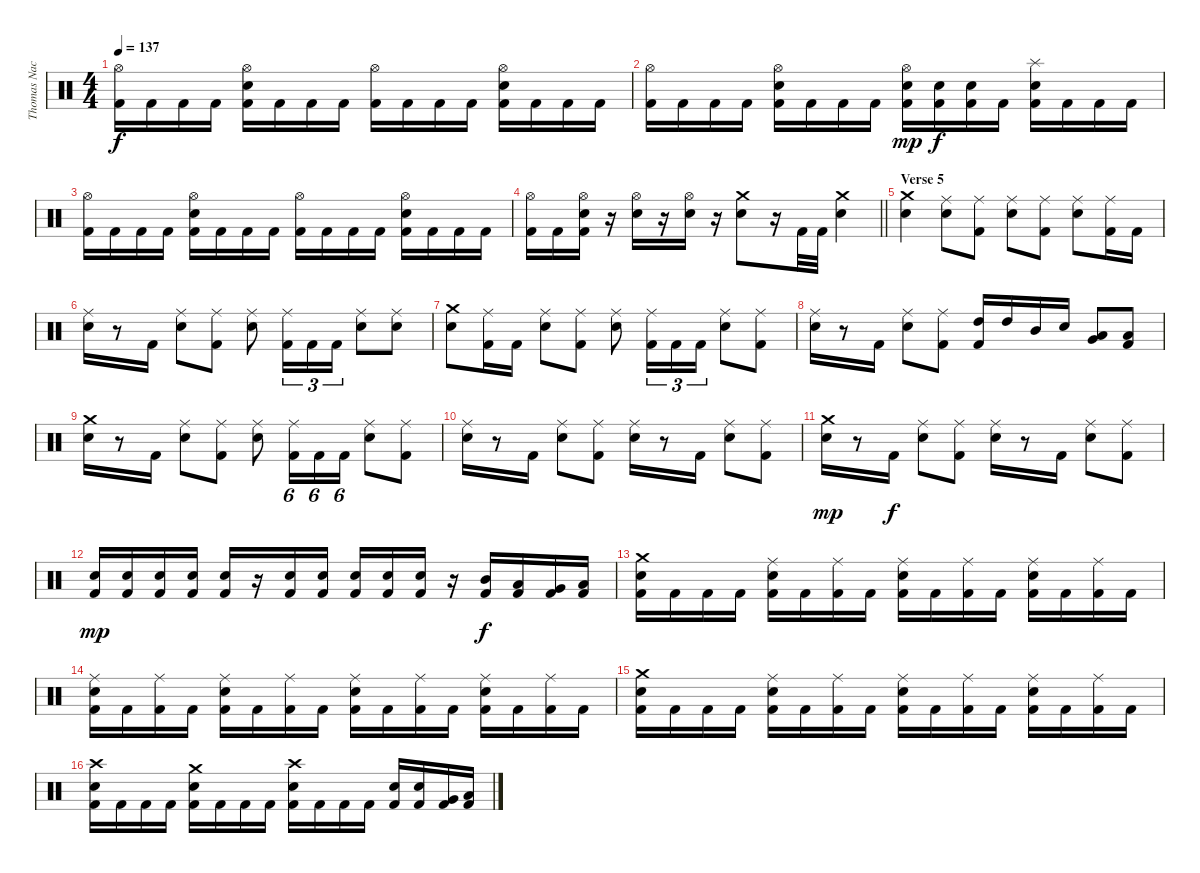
\track ("Thomas Nack" "Thomas Nac") {instrument percussion}
\staff {score}
\articulation defaults
\ts (4 4)
\tempo 137
\clef neutral
\ks c
("Hi-Hat (open)" "Kick (hit) 2").16{dy f} "Kick (hit) 2".16 "Kick (hit) 2".16 "Kick (hit) 2".16 ("Hi-Hat (open)" "Electric Snare (hit)" "Kick (hit) 2").16 "Kick (hit) 2".16 "Kick (hit) 2".16 "Kick (hit) 2".16 ("Hi-Hat (open)" "Kick (hit) 2").16 "Kick (hit) 2".16 "Kick (hit) 2".16 "Kick (hit) 2".16 ("Hi-Hat (open)" "Electric Snare (hit)" "Kick (hit) 2").16 "Kick (hit) 2".16 "Kick (hit) 2".16 "Kick (hit) 2".16 |
("Hi-Hat (open)" "Kick (hit) 2").16 "Kick (hit) 2".16 "Kick (hit) 2".16 "Kick (hit) 2".16 ("Hi-Hat (open)" "Electric Snare (hit)" "Kick (hit) 2").16 "Kick (hit) 2".16 "Kick (hit) 2".16 "Kick (hit) 2".16 ("Hi-Hat (open)" "Electric Snare (hit)" "Kick (hit) 2").16{dy mp} ("Electric Snare (hit)" "Kick (hit) 2").16{dy f} ("Electric Snare (hit)" "Kick (hit) 2").16 "Kick (hit) 2".16 ("Splash (hit)" "Electric Snare (hit)" "Kick (hit) 2").16 "Kick (hit) 2".16 "Kick (hit) 2".16 "Kick (hit) 2".16 |
("Hi-Hat (open)" "Kick (hit) 2").16 "Kick (hit) 2".16 "Kick (hit) 2".16 "Kick (hit) 2".16 ("Hi-Hat (open)" "Electric Snare (hit)" "Kick (hit) 2").16 "Kick (hit) 2".16 "Kick (hit) 2".16 "Kick (hit) 2".16 ("Hi-Hat (open)" "Kick (hit) 2").16 "Kick (hit) 2".16 "Kick (hit) 2".16 "Kick (hit) 2".16 ("Hi-Hat (open)" "Electric Snare (hit)" "Kick (hit) 2").16 "Kick (hit) 2".16 "Kick (hit) 2".16 "Kick (hit) 2".16 |
\barLineRight lightlight
("Hi-Hat (open)" "Kick (hit) 2").16 "Kick (hit) 2".16 ("Hi-Hat (open)" "Electric Snare (hit)" "Kick (hit) 2").16 r.16 ("Hi-Hat (open)" "Electric Snare (hit)").16 r.16 ("Hi-Hat (open)" "Electric Snare (hit)").16 r.16 ("Crash medium (hit)" "Electric Snare (hit)").8 r.16 "Kick (hit) 2".32 "Kick (hit) 2".32 ("Crash medium (hit)" "Electric Snare (hit)").4 |
\section ("" "Verse 5")
("Crash medium (hit)" "Electric Snare (hit)").4 ("Ride (middle)" "Electric Snare (hit)").8 ("Ride (middle)" "Kick (hit) 2").8 ("Ride (middle)" "Electric Snare (hit)").8 ("Ride (middle)" "Kick (hit) 2").8 ("Ride (middle)" "Electric Snare (hit)").8 ("Ride (middle)" "Kick (hit) 2").16 "Kick (hit) 2".16 |
("Ride (middle)" "Electric Snare (hit)").16 r.8 "Kick (hit) 2".16 ("Ride (middle)" "Electric Snare (hit)").8 ("Ride (middle)" "Kick (hit) 2").8 ("Ride (middle)" "Electric Snare (hit)").8 ("Ride (middle)" "Kick (hit) 2").16{tu (3 2)} "Kick (hit) 2".16{tu (3 2)} "Kick (hit) 2".16{tu (3 2)} ("Ride (middle)" "Electric Snare (hit)").8 ("Ride (middle)" "Electric Snare (hit)").8 |
("Crash medium (hit)" "Electric Snare (hit)").8 ("Ride (middle)" "Kick (hit) 2").16 "Kick (hit) 2".16 ("Ride (middle)" "Electric Snare (hit)").8 ("Ride (middle)" "Kick (hit) 2").8 ("Ride (middle)" "Electric Snare (hit)").8 ("Ride (middle)" "Kick (hit) 2").16{tu (3 2)} "Kick (hit) 2".16{tu (3 2)} "Kick (hit) 2".16{tu (3 2)} ("Ride (middle)" "Electric Snare (hit)").8 ("Ride (middle)" "Kick (hit) 2").8 |
("Ride (middle)" "Electric Snare (hit)").16 r.8 "Kick (hit) 2".16 ("Ride (middle)" "Electric Snare (hit)").8 ("Ride (middle)" "Kick (hit) 2").8 ("High Tom (hit)" "Kick (hit) 2").16 "High Tom (hit)".16 "Mid Tom (hit)".16 "Electric Snare (hit)".16 ("Very Low Tom (hit)" "Low Floor Tom (hit)").8 ("Low Floor Tom (hit)" "Kick (hit) 2").8 |
("Crash medium (hit)" "Electric Snare (hit)").16 r.8 "Kick (hit) 2".16 ("Ride (middle)" "Electric Snare (hit)").8 ("Ride (middle)" "Kick (hit) 2").8 ("Ride (middle)" "Electric Snare (hit)").8 ("Ride (middle)" "Kick (hit) 2").16{tu (6 4)} "Kick (hit) 2".16{tu (6 4)} "Kick (hit) 2".16{tu (6 4)} ("Ride (middle)" "Electric Snare (hit)").8 ("Ride (middle)" "Kick (hit) 2").8 |
("Ride (middle)" "Electric Snare (hit)").16 r.8 "Kick (hit) 2".16 ("Ride (middle)" "Electric Snare (hit)").8 ("Ride (middle)" "Kick (hit) 2").8 ("Ride (middle)" "Electric Snare (hit)").16 r.8 "Kick (hit) 2".16 ("Ride (middle)" "Electric Snare (hit)").8 ("Ride (middle)" "Kick (hit) 2").8 |
("Crash medium (hit)" "Electric Snare (hit)").16{dy mp} r.8 "Kick (hit) 2".16{dy f} ("Ride (middle)" "Electric Snare (hit)").8 ("Ride (middle)" "Kick (hit) 2").8 ("Ride (middle)" "Electric Snare (hit)").16 r.8 "Kick (hit) 2".16 ("Ride (middle)" "Electric Snare (hit)").8 ("Ride (middle)" "Kick (hit) 2").8 |
("Electric Snare (hit)" "Kick (hit) 2").16{dy mp} ("Electric Snare (hit)" "Kick (hit) 2").16 ("Electric Snare (hit)" "Kick (hit) 2").16 ("Electric Snare (hit)" "Kick (hit) 2").16 ("Electric Snare (hit)" "Kick (hit) 2").16 r.16 ("Electric Snare (hit)" "Kick (hit) 2").16 ("Electric Snare (hit)" "Kick (hit) 2").16 ("Electric Snare (hit)" "Kick (hit) 2").16 ("Electric Snare (hit)" "Kick (hit) 2").16 ("Electric Snare (hit)" "Kick (hit) 2").16 r.16 ("Mid Tom (hit)" "Kick (hit) 2").16{dy f} ("Low Tom (hit)" "Kick (hit) 2").16 ("Very Low Tom (hit)" "Kick (hit) 2").16 ("Low Floor Tom (hit)" "Kick (hit) 2").16 |
("Crash medium (hit)" "Electric Snare (hit)" "Kick (hit) 2").16 "Kick (hit) 2".16 "Kick (hit) 2".16 "Kick (hit) 2".16 ("Ride (middle)" "Electric Snare (hit)" "Kick (hit) 2").16 "Kick (hit) 2".16 ("Ride (middle)" "Kick (hit) 2").16 "Kick (hit) 2".16 ("Ride (middle)" "Electric Snare (hit)" "Kick (hit) 2").16 "Kick (hit) 2".16 ("Ride (middle)" "Kick (hit) 2").16 "Kick (hit) 2".16 ("Ride (middle)" "Electric Snare (hit)" "Kick (hit) 2").16 "Kick (hit) 2".16 ("Ride (middle)" "Kick (hit) 2").16 "Kick (hit) 2".16 |
("Ride (middle)" "Electric Snare (hit)" "Kick (hit) 2").16 "Kick (hit) 2".16 ("Ride (middle)" "Kick (hit) 2").16 "Kick (hit) 2".16 ("Ride (middle)" "Electric Snare (hit)" "Kick (hit) 2").16 "Kick (hit) 2".16 ("Ride (middle)" "Kick (hit) 2").16 "Kick (hit) 2".16 ("Ride (middle)" "Electric Snare (hit)" "Kick (hit) 2").16 "Kick (hit) 2".16 ("Ride (middle)" "Kick (hit) 2").16 "Kick (hit) 2".16 ("Ride (middle)" "Electric Snare (hit)" "Kick (hit) 2").16 "Kick (hit) 2".16 ("Ride (middle)" "Kick (hit) 2").16 "Kick (hit) 2".16 |
("Crash medium (hit)" "Electric Snare (hit)" "Kick (hit) 2").16 "Kick (hit) 2".16 "Kick (hit) 2".16 "Kick (hit) 2".16 ("Ride (middle)" "Electric Snare (hit)" "Kick (hit) 2").16 "Kick (hit) 2".16 ("Ride (middle)" "Kick (hit) 2").16 "Kick (hit) 2".16 ("Ride (middle)" "Electric Snare (hit)" "Kick (hit) 2").16 "Kick (hit) 2".16 ("Ride (middle)" "Kick (hit) 2").16 "Kick (hit) 2".16 ("Ride (middle)" "Electric Snare (hit)" "Kick (hit) 2").16 "Kick (hit) 2".16 ("Ride (middle)" "Kick (hit) 2").16 "Kick (hit) 2".16 |
("Crash high (hit)" "Electric Snare (hit)" "Kick (hit) 2").16 "Kick (hit) 2".16 "Kick (hit) 2".16 "Kick (hit) 2".16 ("Crash medium (hit)" "Electric Snare (hit)" "Kick (hit) 2").16 "Kick (hit) 2".16 "Kick (hit) 2".16 "Kick (hit) 2".16 ("Crash high (hit)" "Electric Snare (hit)" "Kick (hit) 2").16 "Kick (hit) 2".16 "Kick (hit) 2".16 "Kick (hit) 2".16 ("Electric Snare (hit)" "Kick (hit) 2").16 ("Electric Snare (hit)" "Kick (hit) 2").16 ("Very Low Tom (hit)" "Kick (hit) 2").16 ("Low Floor Tom (hit)" "Kick (hit) 2").16
